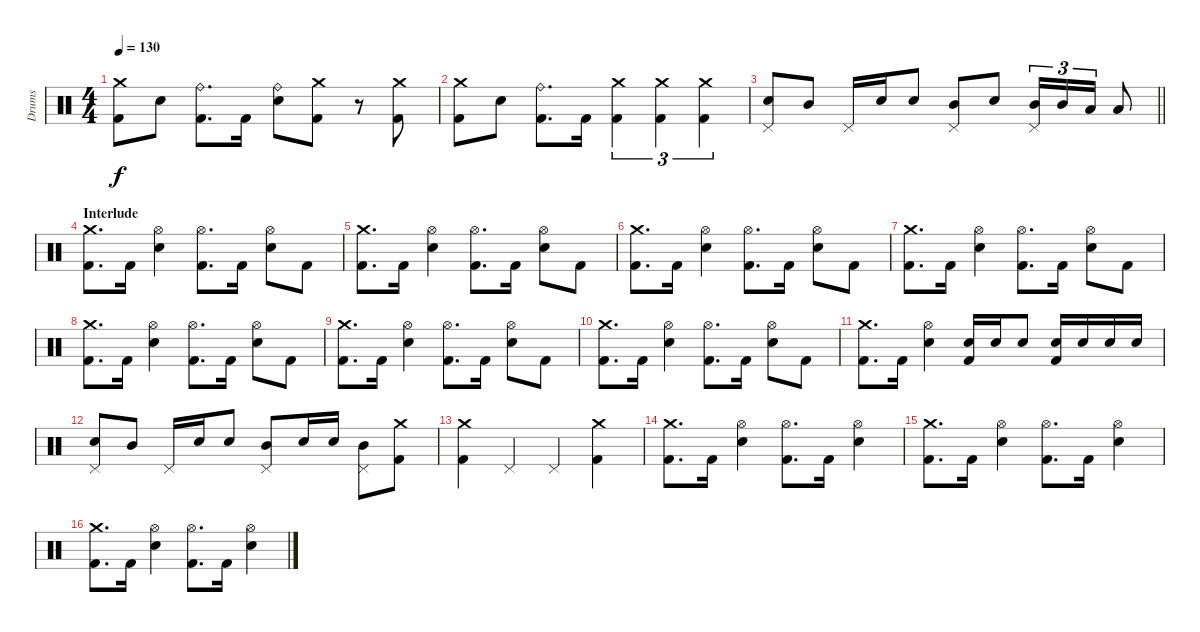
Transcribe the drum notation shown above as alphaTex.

\track ("Drums" "Drums") {instrument percussion}
\staff {score}
\articulation defaults
\ts (4 4)
\tempo 130
\clef neutral
\ks c
("Crash medium (hit)" "Kick (hit) 2").8{dy f} "Snare (hit) 2".8 ("Ride (bell)" "Kick (hit) 2").8{d} "Kick (hit) 2".16 ("Ride (bell)" "Snare (hit) 2").8 ("Crash medium (hit)" "Kick (hit) 2").8 r.8 ("Crash medium (hit)" "Kick (hit) 2").8 |
("Crash medium (hit)" "Kick (hit) 2").8 "Snare (hit) 2".8 ("Ride (bell)" "Kick (hit) 2").8{d} "Kick (hit) 2".16 ("Crash medium (hit)" "Kick (hit) 2").4{tu (3 2)} ("Crash medium (hit)" "Kick (hit) 2").4{tu (3 2)} ("Crash medium (hit)" "Kick (hit) 2").4{tu (3 2)} |
\barLineRight lightlight
("Pedal Hi-Hat (hit)" "Snare (hit) 2").8 "Mid Tom (hit)".8 "Pedal Hi-Hat (hit)".16 "Snare (hit) 2".16 "Snare (hit) 2".8 ("Pedal Hi-Hat (hit)" "Mid Tom (hit)").8 "Snare (hit) 2".8 ("Pedal Hi-Hat (hit)" "Mid Tom (hit)").16{tu (3 2)} "Mid Tom (hit)".16{tu (3 2)} "Low Tom (hit)".16{tu (3 2)} "Low Tom (hit)".8 |
\section ("" "Interlude")
("Crash medium (hit)" "Kick (hit) 2").8{d} "Kick (hit) 2".16 ("Hi-Hat (open)" "Snare (hit) 2").4 ("Hi-Hat (open)" "Kick (hit) 2").8{d} "Kick (hit) 2".16 ("Hi-Hat (open)" "Snare (hit) 2").8 "Kick (hit) 2".8 |
("Crash medium (hit)" "Kick (hit) 2").8{d} "Kick (hit) 2".16 ("Hi-Hat (open)" "Snare (hit) 2").4 ("Hi-Hat (open)" "Kick (hit) 2").8{d} "Kick (hit) 2".16 ("Hi-Hat (open)" "Snare (hit) 2").8 "Kick (hit) 2".8 |
("Crash medium (hit)" "Kick (hit) 2").8{d} "Kick (hit) 2".16 ("Hi-Hat (open)" "Snare (hit) 2").4 ("Hi-Hat (open)" "Kick (hit) 2").8{d} "Kick (hit) 2".16 ("Hi-Hat (open)" "Snare (hit) 2").8 "Kick (hit) 2".8 |
("Crash medium (hit)" "Kick (hit) 2").8{d} "Kick (hit) 2".16 ("Hi-Hat (open)" "Snare (hit) 2").4 ("Hi-Hat (open)" "Kick (hit) 2").8{d} "Kick (hit) 2".16 ("Hi-Hat (open)" "Snare (hit) 2").8 "Kick (hit) 2".8 |
("Crash medium (hit)" "Kick (hit) 2").8{d} "Kick (hit) 2".16 ("Hi-Hat (open)" "Snare (hit) 2").4 ("Hi-Hat (open)" "Kick (hit) 2").8{d} "Kick (hit) 2".16 ("Hi-Hat (open)" "Snare (hit) 2").8 "Kick (hit) 2".8 |
("Crash medium (hit)" "Kick (hit) 2").8{d} "Kick (hit) 2".16 ("Hi-Hat (open)" "Snare (hit) 2").4 ("Hi-Hat (open)" "Kick (hit) 2").8{d} "Kick (hit) 2".16 ("Hi-Hat (open)" "Snare (hit) 2").8 "Kick (hit) 2".8 |
("Crash medium (hit)" "Kick (hit) 2").8{d} "Kick (hit) 2".16 ("Hi-Hat (open)" "Snare (hit) 2").4 ("Hi-Hat (open)" "Kick (hit) 2").8{d} "Kick (hit) 2".16 ("Hi-Hat (open)" "Snare (hit) 2").8 "Kick (hit) 2".8 |
("Crash medium (hit)" "Kick (hit) 2").8{d} "Kick (hit) 2".16 ("Hi-Hat (open)" "Snare (hit) 2").4 ("Snare (hit) 2" "Kick (hit) 2").16 "Snare (hit) 2".16 "Snare (hit) 2".8 ("Snare (hit) 2" "Kick (hit) 2").16 "Snare (hit) 2".16 "Snare (hit) 2".16 "Snare (hit) 2".16 |
("Pedal Hi-Hat (hit)" "Snare (hit) 2").8 "Mid Tom (hit)".8 "Pedal Hi-Hat (hit)".16 "Snare (hit) 2".16 "Snare (hit) 2".8 ("Pedal Hi-Hat (hit)" "Mid Tom (hit)").8 "Snare (hit) 2".16 "Snare (hit) 2".16 ("Pedal Hi-Hat (hit)" "Mid Tom (hit)").8 ("Crash medium (hit)" "Kick (hit) 2").8 |
("Crash medium (hit)" "Kick (hit) 2").4 "Pedal Hi-Hat (hit)".4 "Pedal Hi-Hat (hit)".4 ("Crash medium (hit)" "Kick (hit) 2").4 |
("Crash medium (hit)" "Kick (hit) 2").8{d} "Kick (hit) 2".16 ("Hi-Hat (open)" "Snare (hit) 2").4 ("Hi-Hat (open)" "Kick (hit) 2").8{d} "Kick (hit) 2".16 ("Hi-Hat (open)" "Snare (hit) 2").4 |
("Crash medium (hit)" "Kick (hit) 2").8{d} "Kick (hit) 2".16 ("Hi-Hat (open)" "Snare (hit) 2").4 ("Hi-Hat (open)" "Kick (hit) 2").8{d} "Kick (hit) 2".16 ("Hi-Hat (open)" "Snare (hit) 2").4 |
("Crash medium (hit)" "Kick (hit) 2").8{d} "Kick (hit) 2".16 ("Hi-Hat (open)" "Snare (hit) 2").4 ("Hi-Hat (open)" "Kick (hit) 2").8{d} "Kick (hit) 2".16 ("Hi-Hat (open)" "Snare (hit) 2").4
